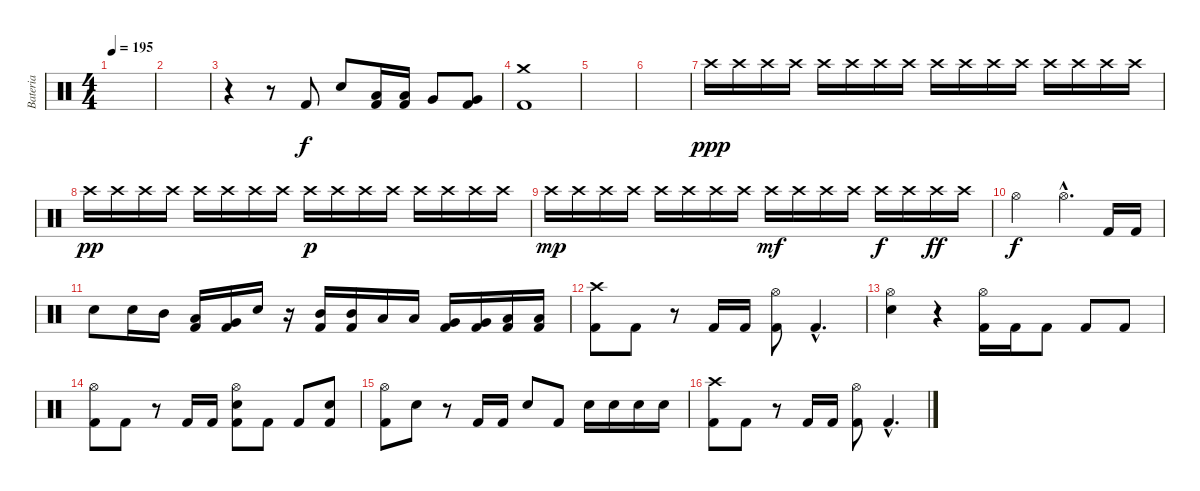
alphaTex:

\track ("Bateria" "Bateria") {instrument percussion}
\staff {score}
\articulation defaults
\ts (4 4)
\tempo 195
\clef neutral
\ks c
|
|
r.4 r.8 "Kick (hit) 2".8 "Snare (hit) 2".8 ("Low Tom (hit)" "Kick (hit) 2").16 ("Low Tom (hit)" "Kick (hit) 2").16 "Very Low Tom (hit)".8 ("Very Low Tom (hit)" "Kick (hit) 2").8 |
("Crash medium (hit)" "Kick (hit) 2").1 |
|
|
"Crash high (hit)".16{dy ppp} "Crash high (hit)".16 "Crash high (hit)".16 "Crash high (hit)".16 "Crash high (hit)".16 "Crash high (hit)".16 "Crash high (hit)".16 "Crash high (hit)".16 "Crash high (hit)".16 "Crash high (hit)".16 "Crash high (hit)".16 "Crash high (hit)".16 "Crash high (hit)".16 "Crash high (hit)".16 "Crash high (hit)".16 "Crash high (hit)".16 |
"Crash high (hit)".16{dy pp} "Crash high (hit)".16 "Crash high (hit)".16 "Crash high (hit)".16 "Crash high (hit)".16 "Crash high (hit)".16 "Crash high (hit)".16 "Crash high (hit)".16 "Crash high (hit)".16{dy p} "Crash high (hit)".16 "Crash high (hit)".16 "Crash high (hit)".16 "Crash high (hit)".16 "Crash high (hit)".16 "Crash high (hit)".16 "Crash high (hit)".16 |
"Crash high (hit)".16{dy mp} "Crash high (hit)".16 "Crash high (hit)".16 "Crash high (hit)".16 "Crash high (hit)".16 "Crash high (hit)".16 "Crash high (hit)".16 "Crash high (hit)".16 "Crash high (hit)".16{dy mf} "Crash high (hit)".16 "Crash high (hit)".16 "Crash high (hit)".16 "Crash high (hit)".16{dy f} "Crash high (hit)".16 "Crash high (hit)".16{dy ff} "Crash high (hit)".16 |
"Hi-Hat (open)".2{dy f} "Hi-Hat (open)"{hac}.4{d} "Kick (hit) 2".16 "Kick (hit) 2".16 |
"Snare (hit) 2".8 "Snare (hit) 2".16 "Mid Tom (hit)".16 ("Low Tom (hit)" "Kick (hit) 2").16 ("Very Low Tom (hit)" "Kick (hit) 2").16 "Snare (hit) 2".16 r.16 ("Mid Tom (hit)" "Kick (hit) 2").16 ("Mid Tom (hit)" "Kick (hit) 2").16 "Low Tom (hit)".16 "Low Tom (hit)".16 ("Very Low Tom (hit)" "Kick (hit) 2").16 ("Very Low Tom (hit)" "Kick (hit) 2").16 ("Low Floor Tom (hit)" "Kick (hit) 2").16 ("Low Floor Tom (hit)" "Kick (hit) 2").16 |
("Crash high (hit)" "Kick (hit) 2").8 "Kick (hit) 2".8 r.8 "Kick (hit) 2".16 "Kick (hit) 2".16 ("Hi-Hat (open)" "Kick (hit) 2").8 "Kick (hit) 2"{hac}.4{d} |
("Snare (hit) 2" "Hi-Hat (open)").4 r.4 ("Hi-Hat (open)" "Kick (hit) 2").16 "Kick (hit) 2".16 "Kick (hit) 2".8 "Kick (hit) 2".8 "Kick (hit) 2".8 |
("Hi-Hat (open)" "Kick (hit) 2").8 "Kick (hit) 2".8 r.8 "Kick (hit) 2".16 "Kick (hit) 2".16 ("Snare (hit) 2" "Hi-Hat (open)" "Kick (hit) 2").8 "Kick (hit) 2".8 "Kick (hit) 2".8 ("Snare (hit) 2" "Kick (hit) 2").8 |
("Hi-Hat (open)" "Kick (hit) 2").8 "Snare (hit) 2".8 r.8 "Kick (hit) 2".16 "Kick (hit) 2".16 "Snare (hit) 2".8 "Kick (hit) 2".8 "Snare (hit) 2".16 "Snare (hit) 2".16 "Snare (hit) 2".16 "Snare (hit) 2".16 |
("Crash high (hit)" "Kick (hit) 2").8 "Kick (hit) 2".8 r.8 "Kick (hit) 2".16 "Kick (hit) 2".16 ("Hi-Hat (open)" "Kick (hit) 2").8 "Kick (hit) 2"{hac}.4{d}
